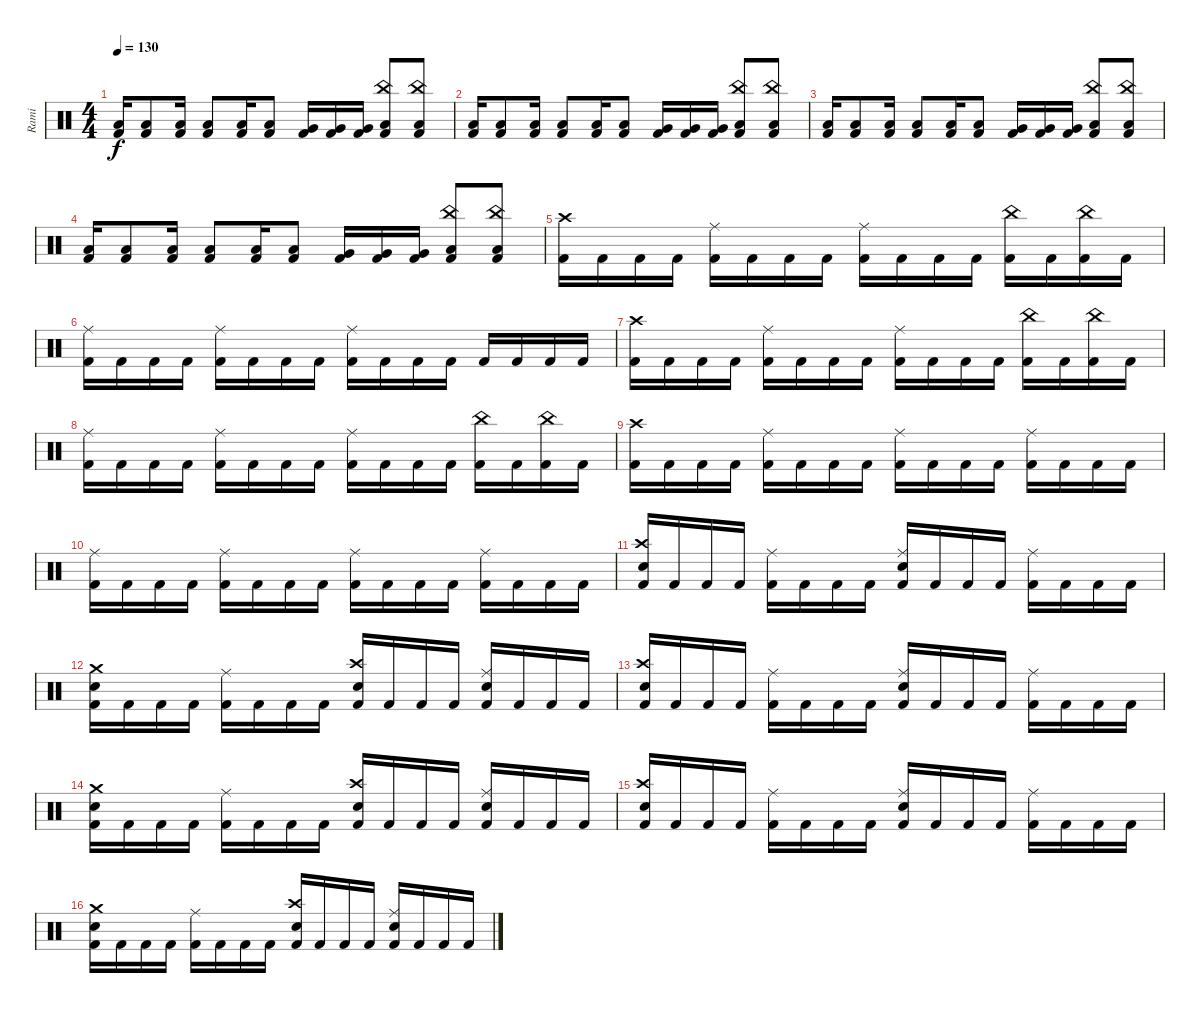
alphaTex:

\track ("Rami" "Rami") {instrument percussion}
\staff {score}
\articulation defaults
\ts (4 4)
\tempo 130
\clef neutral
\ks c
("Low Tom (hit)" "Kick (hit) 2").16{dy f} ("Low Tom (hit)" "Kick (hit) 2").8 ("Low Tom (hit)" "Kick (hit) 2").16 ("Low Tom (hit)" "Kick (hit) 2").8 ("Low Tom (hit)" "Kick (hit) 2").16 ("Low Tom (hit)" "Kick (hit) 2").8 ("Very Low Tom (hit)" "Kick (hit) 2").16 ("Very Low Tom (hit)" "Kick (hit) 2").16 ("Very Low Tom (hit)" "Kick (hit) 2").16 ("China (hit)" "Low Floor Tom (hit)" "Kick (hit) 2").8 ("China (hit)" "Low Floor Tom (hit)" "Kick (hit) 2").8 |
("Low Tom (hit)" "Kick (hit) 2").16 ("Low Tom (hit)" "Kick (hit) 2").8 ("Low Tom (hit)" "Kick (hit) 2").16 ("Low Tom (hit)" "Kick (hit) 2").8 ("Low Tom (hit)" "Kick (hit) 2").16 ("Low Tom (hit)" "Kick (hit) 2").8 ("Very Low Tom (hit)" "Kick (hit) 2").16 ("Very Low Tom (hit)" "Kick (hit) 2").16 ("Very Low Tom (hit)" "Kick (hit) 2").16 ("China (hit)" "Low Floor Tom (hit)" "Kick (hit) 2").8 ("China (hit)" "Low Floor Tom (hit)" "Kick (hit) 2").8 |
("Low Tom (hit)" "Kick (hit) 2").16 ("Low Tom (hit)" "Kick (hit) 2").8 ("Low Tom (hit)" "Kick (hit) 2").16 ("Low Tom (hit)" "Kick (hit) 2").8 ("Low Tom (hit)" "Kick (hit) 2").16 ("Low Tom (hit)" "Kick (hit) 2").8 ("Very Low Tom (hit)" "Kick (hit) 2").16 ("Very Low Tom (hit)" "Kick (hit) 2").16 ("Very Low Tom (hit)" "Kick (hit) 2").16 ("China (hit)" "Low Floor Tom (hit)" "Kick (hit) 2").8 ("China (hit)" "Low Floor Tom (hit)" "Kick (hit) 2").8 |
("Low Tom (hit)" "Kick (hit) 2").16 ("Low Tom (hit)" "Kick (hit) 2").8 ("Low Tom (hit)" "Kick (hit) 2").16 ("Low Tom (hit)" "Kick (hit) 2").8 ("Low Tom (hit)" "Kick (hit) 2").16 ("Low Tom (hit)" "Kick (hit) 2").8 ("Very Low Tom (hit)" "Kick (hit) 2").16 ("Very Low Tom (hit)" "Kick (hit) 2").16 ("Very Low Tom (hit)" "Kick (hit) 2").16 ("China (hit)" "Low Floor Tom (hit)" "Kick (hit) 2").8 ("China (hit)" "Low Floor Tom (hit)" "Kick (hit) 2").8 |
("Crash high (hit)" "Kick (hit) 2").16 "Kick (hit) 2".16 "Kick (hit) 2".16 "Kick (hit) 2".16 ("Ride (middle)" "Kick (hit) 2").16 "Kick (hit) 2".16 "Kick (hit) 2".16 "Kick (hit) 2".16 ("Ride (middle)" "Kick (hit) 2").16 "Kick (hit) 2".16 "Kick (hit) 2".16 "Kick (hit) 2".16 ("China (hit)" "Kick (hit) 2").16 "Kick (hit) 2".16 ("China (hit)" "Kick (hit) 2").16 "Kick (hit) 2".16 |
("Ride (middle)" "Kick (hit) 2").16 "Kick (hit) 2".16 "Kick (hit) 2".16 "Kick (hit) 2".16 ("Ride (middle)" "Kick (hit) 2").16 "Kick (hit) 2".16 "Kick (hit) 2".16 "Kick (hit) 2".16 ("Ride (middle)" "Kick (hit) 2").16 "Kick (hit) 2".16 "Kick (hit) 2".16 "Kick (hit) 2".16 "Kick (hit) 2".16 "Kick (hit) 2".16 "Kick (hit) 2".16 "Kick (hit) 2".16 |
("Crash high (hit)" "Kick (hit) 2").16 "Kick (hit) 2".16 "Kick (hit) 2".16 "Kick (hit) 2".16 ("Ride (middle)" "Kick (hit) 2").16 "Kick (hit) 2".16 "Kick (hit) 2".16 "Kick (hit) 2".16 ("Ride (middle)" "Kick (hit) 2").16 "Kick (hit) 2".16 "Kick (hit) 2".16 "Kick (hit) 2".16 ("China (hit)" "Kick (hit) 2").16 "Kick (hit) 2".16 ("China (hit)" "Kick (hit) 2").16 "Kick (hit) 2".16 |
("Ride (middle)" "Kick (hit) 2").16 "Kick (hit) 2".16 "Kick (hit) 2".16 "Kick (hit) 2".16 ("Ride (middle)" "Kick (hit) 2").16 "Kick (hit) 2".16 "Kick (hit) 2".16 "Kick (hit) 2".16 ("Ride (middle)" "Kick (hit) 2").16 "Kick (hit) 2".16 "Kick (hit) 2".16 "Kick (hit) 2".16 ("China (hit)" "Kick (hit) 2").16 "Kick (hit) 2".16 ("China (hit)" "Kick (hit) 2").16 "Kick (hit) 2".16 |
("Crash high (hit)" "Kick (hit) 2").16 "Kick (hit) 2".16 "Kick (hit) 2".16 "Kick (hit) 2".16 ("Ride (middle)" "Kick (hit) 2").16 "Kick (hit) 2".16 "Kick (hit) 2".16 "Kick (hit) 2".16 ("Ride (middle)" "Kick (hit) 2").16 "Kick (hit) 2".16 "Kick (hit) 2".16 "Kick (hit) 2".16 ("Ride (middle)" "Kick (hit) 2").16 "Kick (hit) 2".16 "Kick (hit) 2".16 "Kick (hit) 2".16 |
("Ride (middle)" "Kick (hit) 2").16 "Kick (hit) 2".16 "Kick (hit) 2".16 "Kick (hit) 2".16 ("Ride (middle)" "Kick (hit) 2").16 "Kick (hit) 2".16 "Kick (hit) 2".16 "Kick (hit) 2".16 ("Ride (middle)" "Kick (hit) 2").16 "Kick (hit) 2".16 "Kick (hit) 2".16 "Kick (hit) 2".16 ("Ride (middle)" "Kick (hit) 2").16 "Kick (hit) 2".16 "Kick (hit) 2".16 "Kick (hit) 2".16 |
("Crash high (hit)" "Electric Snare (hit)" "Kick (hit) 2").16 "Kick (hit) 2".16 "Kick (hit) 2".16 "Kick (hit) 2".16 ("Ride (middle)" "Kick (hit) 2").16 "Kick (hit) 2".16 "Kick (hit) 2".16 "Kick (hit) 2".16 ("Ride (middle)" "Electric Snare (hit)" "Kick (hit) 2").16 "Kick (hit) 2".16 "Kick (hit) 2".16 "Kick (hit) 2".16 ("Ride (middle)" "Kick (hit) 2").16 "Kick (hit) 2".16 "Kick (hit) 2".16 "Kick (hit) 2".16 |
("Crash medium (hit)" "Electric Snare (hit)" "Kick (hit) 2").16 "Kick (hit) 2".16 "Kick (hit) 2".16 "Kick (hit) 2".16 ("Ride (middle)" "Kick (hit) 2").16 "Kick (hit) 2".16 "Kick (hit) 2".16 "Kick (hit) 2".16 ("Crash high (hit)" "Electric Snare (hit)" "Kick (hit) 2").16 "Kick (hit) 2".16 "Kick (hit) 2".16 "Kick (hit) 2".16 ("Ride (middle)" "Electric Snare (hit)" "Kick (hit) 2").16 "Kick (hit) 2".16 "Kick (hit) 2".16 "Kick (hit) 2".16 |
("Crash high (hit)" "Electric Snare (hit)" "Kick (hit) 2").16 "Kick (hit) 2".16 "Kick (hit) 2".16 "Kick (hit) 2".16 ("Ride (middle)" "Kick (hit) 2").16 "Kick (hit) 2".16 "Kick (hit) 2".16 "Kick (hit) 2".16 ("Ride (middle)" "Electric Snare (hit)" "Kick (hit) 2").16 "Kick (hit) 2".16 "Kick (hit) 2".16 "Kick (hit) 2".16 ("Ride (middle)" "Kick (hit) 2").16 "Kick (hit) 2".16 "Kick (hit) 2".16 "Kick (hit) 2".16 |
("Crash medium (hit)" "Electric Snare (hit)" "Kick (hit) 2").16 "Kick (hit) 2".16 "Kick (hit) 2".16 "Kick (hit) 2".16 ("Ride (middle)" "Kick (hit) 2").16 "Kick (hit) 2".16 "Kick (hit) 2".16 "Kick (hit) 2".16 ("Crash high (hit)" "Electric Snare (hit)" "Kick (hit) 2").16 "Kick (hit) 2".16 "Kick (hit) 2".16 "Kick (hit) 2".16 ("Ride (middle)" "Electric Snare (hit)" "Kick (hit) 2").16 "Kick (hit) 2".16 "Kick (hit) 2".16 "Kick (hit) 2".16 |
("Crash high (hit)" "Electric Snare (hit)" "Kick (hit) 2").16 "Kick (hit) 2".16 "Kick (hit) 2".16 "Kick (hit) 2".16 ("Ride (middle)" "Kick (hit) 2").16 "Kick (hit) 2".16 "Kick (hit) 2".16 "Kick (hit) 2".16 ("Ride (middle)" "Electric Snare (hit)" "Kick (hit) 2").16 "Kick (hit) 2".16 "Kick (hit) 2".16 "Kick (hit) 2".16 ("Ride (middle)" "Kick (hit) 2").16 "Kick (hit) 2".16 "Kick (hit) 2".16 "Kick (hit) 2".16 |
("Crash medium (hit)" "Electric Snare (hit)" "Kick (hit) 2").16 "Kick (hit) 2".16 "Kick (hit) 2".16 "Kick (hit) 2".16 ("Ride (middle)" "Kick (hit) 2").16 "Kick (hit) 2".16 "Kick (hit) 2".16 "Kick (hit) 2".16 ("Crash high (hit)" "Electric Snare (hit)" "Kick (hit) 2").16 "Kick (hit) 2".16 "Kick (hit) 2".16 "Kick (hit) 2".16 ("Ride (middle)" "Electric Snare (hit)" "Kick (hit) 2").16 "Kick (hit) 2".16 "Kick (hit) 2".16 "Kick (hit) 2".16
